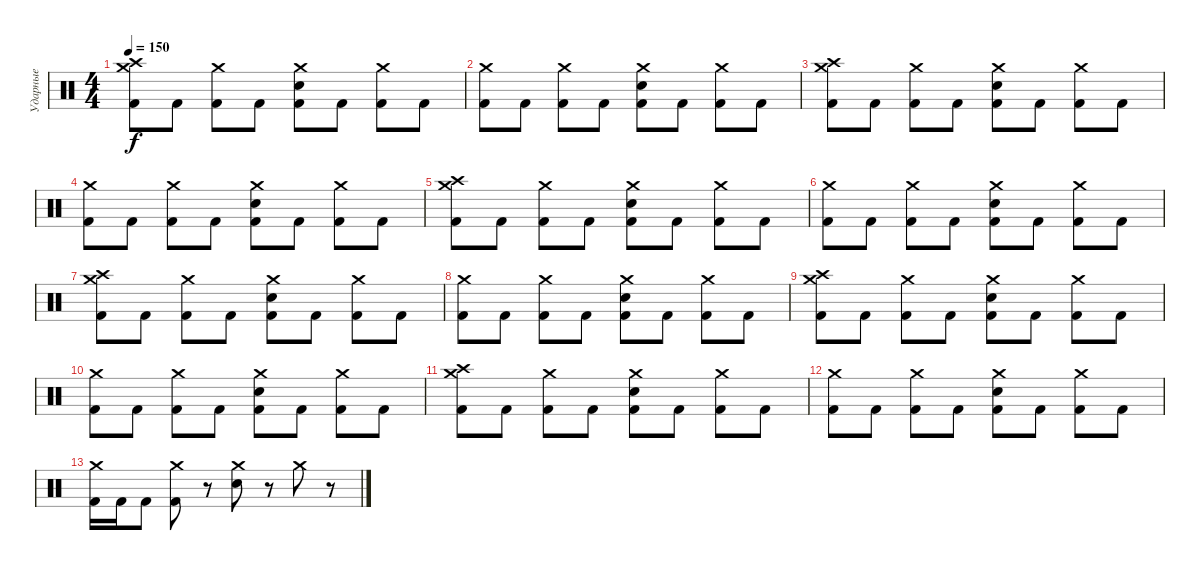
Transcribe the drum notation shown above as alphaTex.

\track ("Ударные" "Ударные") {instrument percussion}
\staff {score}
\articulation defaults
\ts (4 4)
\tempo 150
\clef neutral
\ks c
("Crash medium (hit)" "Crash high (hit)" "Kick (hit) 2").8{dy f} "Kick (hit) 2".8 ("Crash medium (hit)" "Kick (hit) 2").8 "Kick (hit) 2".8 ("Crash medium (hit)" "Electric Snare (hit)" "Kick (hit) 2").8 "Kick (hit) 2".8 ("Crash medium (hit)" "Kick (hit) 2").8 "Kick (hit) 2".8 |
("Crash medium (hit)" "Kick (hit) 2").8 "Kick (hit) 2".8 ("Crash medium (hit)" "Kick (hit) 2").8 "Kick (hit) 2".8 ("Crash medium (hit)" "Electric Snare (hit)" "Kick (hit) 2").8 "Kick (hit) 2".8 ("Crash medium (hit)" "Kick (hit) 2").8 "Kick (hit) 2".8 |
("Crash medium (hit)" "Crash high (hit)" "Kick (hit) 2").8 "Kick (hit) 2".8 ("Crash medium (hit)" "Kick (hit) 2").8 "Kick (hit) 2".8 ("Crash medium (hit)" "Electric Snare (hit)" "Kick (hit) 2").8 "Kick (hit) 2".8 ("Crash medium (hit)" "Kick (hit) 2").8 "Kick (hit) 2".8 |
("Crash medium (hit)" "Kick (hit) 2").8 "Kick (hit) 2".8 ("Crash medium (hit)" "Kick (hit) 2").8 "Kick (hit) 2".8 ("Crash medium (hit)" "Electric Snare (hit)" "Kick (hit) 2").8 "Kick (hit) 2".8 ("Crash medium (hit)" "Kick (hit) 2").8 "Kick (hit) 2".8 |
("Crash medium (hit)" "Crash high (hit)" "Kick (hit) 2").8 "Kick (hit) 2".8 ("Crash medium (hit)" "Kick (hit) 2").8 "Kick (hit) 2".8 ("Crash medium (hit)" "Electric Snare (hit)" "Kick (hit) 2").8 "Kick (hit) 2".8 ("Crash medium (hit)" "Kick (hit) 2").8 "Kick (hit) 2".8 |
("Crash medium (hit)" "Kick (hit) 2").8 "Kick (hit) 2".8 ("Crash medium (hit)" "Kick (hit) 2").8 "Kick (hit) 2".8 ("Crash medium (hit)" "Electric Snare (hit)" "Kick (hit) 2").8 "Kick (hit) 2".8 ("Crash medium (hit)" "Kick (hit) 2").8 "Kick (hit) 2".8 |
("Crash medium (hit)" "Crash high (hit)" "Kick (hit) 2").8 "Kick (hit) 2".8 ("Crash medium (hit)" "Kick (hit) 2").8 "Kick (hit) 2".8 ("Crash medium (hit)" "Electric Snare (hit)" "Kick (hit) 2").8 "Kick (hit) 2".8 ("Crash medium (hit)" "Kick (hit) 2").8 "Kick (hit) 2".8 |
("Crash medium (hit)" "Kick (hit) 2").8 "Kick (hit) 2".8 ("Crash medium (hit)" "Kick (hit) 2").8 "Kick (hit) 2".8 ("Crash medium (hit)" "Electric Snare (hit)" "Kick (hit) 2").8 "Kick (hit) 2".8 ("Crash medium (hit)" "Kick (hit) 2").8 "Kick (hit) 2".8 |
("Crash medium (hit)" "Crash high (hit)" "Kick (hit) 2").8 "Kick (hit) 2".8 ("Crash medium (hit)" "Kick (hit) 2").8 "Kick (hit) 2".8 ("Crash medium (hit)" "Electric Snare (hit)" "Kick (hit) 2").8 "Kick (hit) 2".8 ("Crash medium (hit)" "Kick (hit) 2").8 "Kick (hit) 2".8 |
("Crash medium (hit)" "Kick (hit) 2").8 "Kick (hit) 2".8 ("Crash medium (hit)" "Kick (hit) 2").8 "Kick (hit) 2".8 ("Crash medium (hit)" "Electric Snare (hit)" "Kick (hit) 2").8 "Kick (hit) 2".8 ("Crash medium (hit)" "Kick (hit) 2").8 "Kick (hit) 2".8 |
("Crash medium (hit)" "Crash high (hit)" "Kick (hit) 2").8 "Kick (hit) 2".8 ("Crash medium (hit)" "Kick (hit) 2").8 "Kick (hit) 2".8 ("Crash medium (hit)" "Electric Snare (hit)" "Kick (hit) 2").8 "Kick (hit) 2".8 ("Crash medium (hit)" "Kick (hit) 2").8 "Kick (hit) 2".8 |
("Crash medium (hit)" "Kick (hit) 2").8 "Kick (hit) 2".8 ("Crash medium (hit)" "Kick (hit) 2").8 "Kick (hit) 2".8 ("Crash medium (hit)" "Electric Snare (hit)" "Kick (hit) 2").8 "Kick (hit) 2".8 ("Crash medium (hit)" "Kick (hit) 2").8 "Kick (hit) 2".8 |
("Crash medium (hit)" "Kick (hit) 2").16 "Kick (hit) 2".16 "Kick (hit) 2".8 ("Crash medium (hit)" "Kick (hit) 2").8 r.8 ("Crash medium (hit)" "Electric Snare (hit)").8 r.8 "Crash medium (hit)".8 r.8
